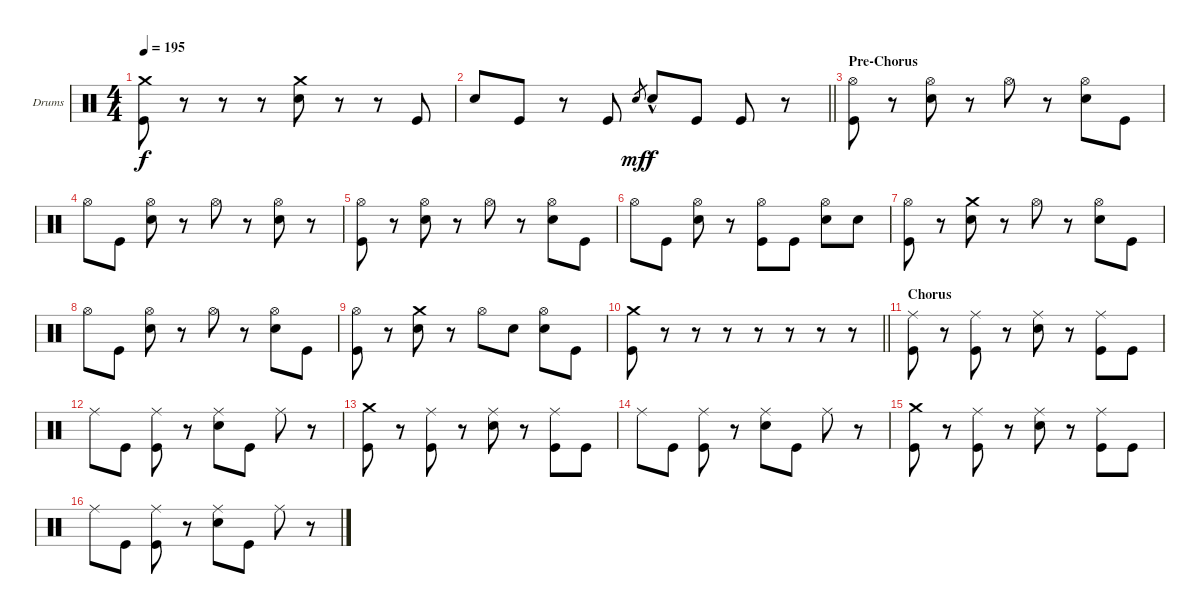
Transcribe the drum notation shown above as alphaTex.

\bracketExtendMode groupsimilarinstruments
\firstSystemTrackNameOrientation horizontal
\otherSystemsTrackNameOrientation horizontal
\track ("Drumkit" "Drums") {instrument percussion}
\staff {score}
\articulation defaults
\ts (4 4)
\tempo 195
\clef neutral
\ks c
("Crash medium (hit)" "Kick (hit)").8{dy f} r.8 r.8 r.8 ("Crash medium (hit)" "Snare (hit) 2").8 r.8 r.8 "Kick (hit)".8 |
\barLineRight lightlight "Snare (hit) 2".8 "Kick (hit)".8
r.8 "Kick (hit)".8 "Snare (hit) 2".8{gr dy mf} "Snare (hit) 2"{hac}.8{dy f} "Kick (hit)".8 "Kick (hit)".8 r.8 |
\section ("" "Pre-Chorus")
("Hi-Hat (open)" "Kick (hit)").8 r.8 ("Hi-Hat (open)" "Snare (hit) 2").8 r.8 "Hi-Hat (open)".8 r.8 ("Hi-Hat (open)" "Snare (hit) 2").8 "Kick (hit)".8 |
"Hi-Hat (open)".8 "Kick (hit)".8 ("Hi-Hat (open)" "Snare (hit) 2").8 r.8 "Hi-Hat (open)".8 r.8 ("Hi-Hat (open)" "Snare (hit) 2").8 r.8 |
("Hi-Hat (open)" "Kick (hit)").8 r.8 ("Hi-Hat (open)" "Snare (hit) 2").8 r.8 "Hi-Hat (open)".8 r.8 ("Hi-Hat (open)" "Snare (hit) 2").8 "Kick (hit)".8 |
"Hi-Hat (open)".8 "Kick (hit)".8 ("Hi-Hat (open)" "Snare (hit) 2").8 r.8 ("Hi-Hat (open)" "Kick (hit)").8 "Kick (hit)".8 ("Hi-Hat (open)" "Snare (hit) 2").8 "Snare (hit) 2".8 |
("Hi-Hat (open)" "Kick (hit)").8 r.8 ("Crash medium (hit)" "Snare (hit) 2").8 r.8 "Hi-Hat (open)".8 r.8 ("Hi-Hat (open)" "Snare (hit) 2").8 "Kick (hit)".8 |
"Hi-Hat (open)".8 "Kick (hit)".8 ("Hi-Hat (open)" "Snare (hit) 2").8 r.8 "Hi-Hat (open)".8 r.8 ("Hi-Hat (open)" "Snare (hit) 2").8 "Kick (hit)".8 |
("Hi-Hat (open)" "Kick (hit)").8 r.8 ("Crash medium (hit)" "Snare (hit) 2").8 r.8 "Hi-Hat (open)".8 "Snare (hit) 2".8 ("Hi-Hat (open)" "Snare (hit) 2").8 "Kick (hit)".8 |
\barLineRight lightlight
("Crash medium (hit)" "Kick (hit)").8 r.8 r.8 r.8 r.8 r.8 r.8 r.8 |
\section ("" "Chorus")
("Ride (middle)" "Kick (hit)").8 r.8 ("Ride (middle)" "Kick (hit)").8 r.8 ("Ride (middle)" "Snare (hit) 2").8 r.8 ("Ride (middle)" "Kick (hit)").8 "Kick (hit)".8 |
"Ride (middle)".8 "Kick (hit)".8 ("Ride (middle)" "Kick (hit)").8 r.8 ("Ride (middle)" "Snare (hit) 2").8 "Kick (hit)".8 "Ride (middle)".8 r.8 |
("Crash medium (hit)" "Kick (hit)").8 r.8 ("Ride (middle)" "Kick (hit)").8 r.8 ("Ride (middle)" "Snare (hit) 2").8 r.8 ("Ride (middle)" "Kick (hit)").8 "Kick (hit)".8 |
"Ride (middle)".8 "Kick (hit)".8 ("Ride (middle)" "Kick (hit)").8 r.8 ("Ride (middle)" "Snare (hit) 2").8 "Kick (hit)".8 "Ride (middle)".8 r.8 |
("Crash medium (hit)" "Kick (hit)").8 r.8 ("Ride (middle)" "Kick (hit)").8 r.8 ("Ride (middle)" "Snare (hit) 2").8 r.8 ("Ride (middle)" "Kick (hit)").8 "Kick (hit)".8 |
"Ride (middle)".8 "Kick (hit)".8 ("Ride (middle)" "Kick (hit)").8 r.8 ("Ride (middle)" "Snare (hit) 2").8 "Kick (hit)".8 "Ride (middle)".8 r.8
